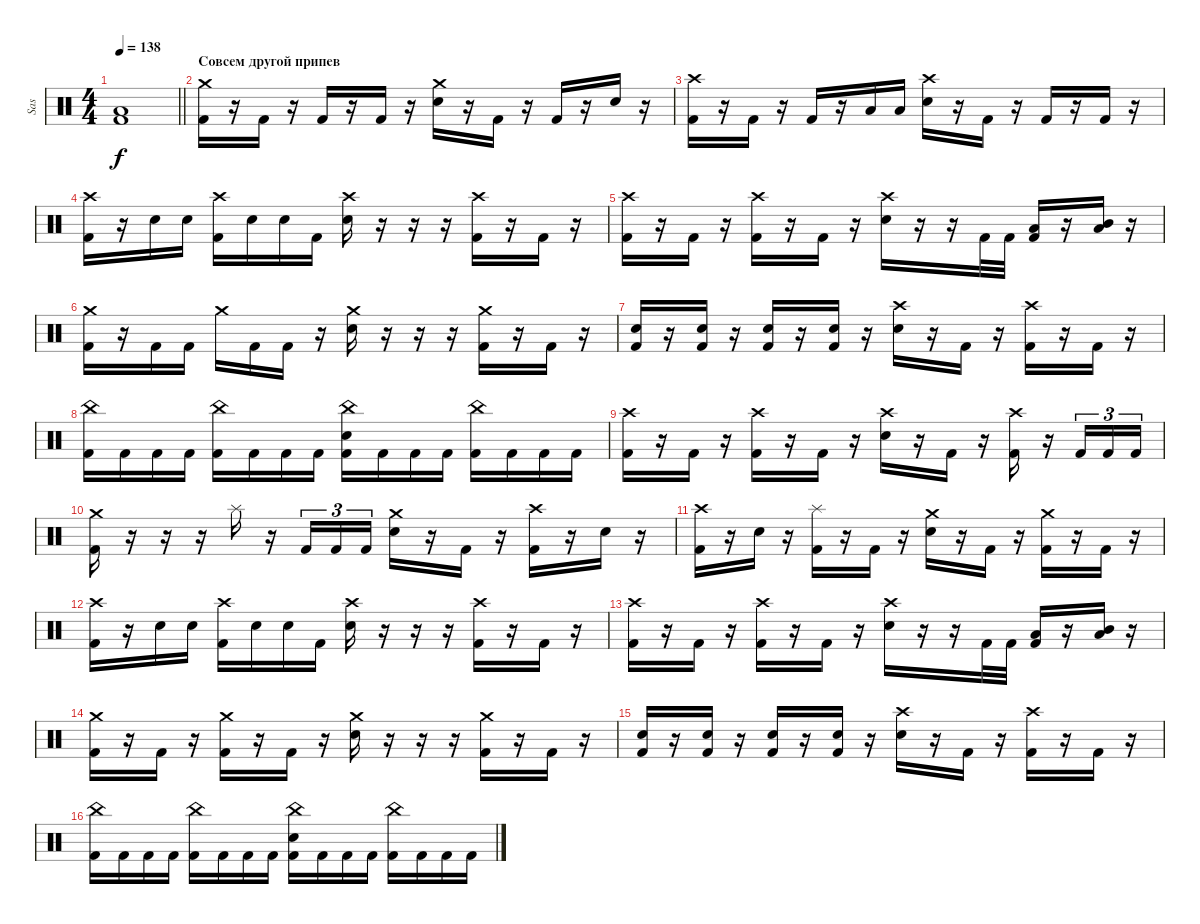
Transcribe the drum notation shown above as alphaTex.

\track ("Sas" "Sas") {instrument percussion}
\staff {score}
\articulation defaults
\ts (4 4)
\tempo 138
\clef neutral
\barLineRight lightlight
\ks c
("Low Tom (hit)" "Kick (hit) 2").1{dy f} |
\section ("" "Совсем другой припев")
("Crash medium (hit)" "Kick (hit) 2").16 r.16 "Kick (hit) 2".16 r.16 "Kick (hit) 2".16 r.16 "Kick (hit) 2".16 r.16 ("Crash medium (hit)" "Snare (hit) 2").16 r.16 "Kick (hit) 2".16 r.16 "Kick (hit) 2".16 r.16 "Snare (hit) 2".16 r.16 |
("Crash high (hit)" "Kick (hit) 2").16 r.16 "Kick (hit) 2".16 r.16 "Kick (hit) 2".16 r.16 "Low Tom (hit)".16 "Low Tom (hit)".16 ("Crash high (hit)" "Snare (hit) 2").16 r.16 "Kick (hit) 2".16 r.16 "Kick (hit) 2".16 r.16 "Kick (hit) 2".16 r.16 |
("Crash high (hit)" "Kick (hit) 2").16 r.16 "Snare (hit) 2".16 "Snare (hit) 2".16 ("Crash high (hit)" "Kick (hit) 2").16 "Snare (hit) 2".16 "Snare (hit) 2".16 "Kick (hit) 2".16 ("Crash high (hit)" "Snare (hit) 2").16 r.16 r.16 r.16 ("Crash high (hit)" "Kick (hit) 2").16 r.16 "Kick (hit) 2".16 r.16 |
("Crash high (hit)" "Kick (hit) 2").16 r.16 "Kick (hit) 2".16 r.16 ("Crash high (hit)" "Kick (hit) 2").16 r.16 "Kick (hit) 2".16 r.16 ("Crash high (hit)" "Snare (hit) 2").16 r.16 r.16 "Kick (hit) 2".32 "Kick (hit) 2".32 ("Low Tom (hit)" "Kick (hit) 2").16 r.16 ("Low Tom (hit)" "Mid Tom (hit)").16 r.16 |
("Crash medium (hit)" "Kick (hit) 2").16 r.16 "Kick (hit) 2".16 "Kick (hit) 2".16 "Crash medium (hit)".16 "Kick (hit) 2".16 "Kick (hit) 2".16 r.16 ("Crash medium (hit)" "Snare (hit) 2").16 r.16 r.16 r.16 ("Crash medium (hit)" "Kick (hit) 2").16 r.16 "Kick (hit) 2".16 r.16 |
("Snare (hit) 2" "Kick (hit) 2").16 r.16 ("Snare (hit) 2" "Kick (hit) 2").16 r.16 ("Snare (hit) 2" "Kick (hit) 2").16 r.16 ("Snare (hit) 2" "Kick (hit) 2").16 r.16 ("Crash high (hit)" "Snare (hit) 2").16 r.16 "Kick (hit) 2".16 r.16 ("Crash high (hit)" "Kick (hit) 2").16 r.16 "Kick (hit) 2".16 r.16 |
("China (hit)" "Kick (hit) 2").16 "Kick (hit) 2".16 "Kick (hit) 2".16 "Kick (hit) 2".16 ("China (hit)" "Kick (hit) 2").16 "Kick (hit) 2".16 "Kick (hit) 2".16 "Kick (hit) 2".16 ("China (hit)" "Snare (hit) 2" "Kick (hit) 2").16 "Kick (hit) 2".16 "Kick (hit) 2".16 "Kick (hit) 2".16 ("China (hit)" "Kick (hit) 2").16 "Kick (hit) 2".16 "Kick (hit) 2".16 "Kick (hit) 2".16 |
("Crash high (hit)" "Kick (hit) 2").16 r.16 "Kick (hit) 2".16 r.16 ("Crash high (hit)" "Kick (hit) 2").16 r.16 "Kick (hit) 2".16 r.16 ("Crash high (hit)" "Snare (hit) 2").16 r.16 "Kick (hit) 2".16 r.16 ("Crash high (hit)" "Kick (hit) 2").16 r.16 "Kick (hit) 2".16{tu (3 2)} "Kick (hit) 2".16{tu (3 2)} "Kick (hit) 2".16{tu (3 2)} |
("Crash medium (hit)" "Kick (hit) 2").16 r.16 r.16 r.16 "Splash (hit)".16 r.16 "Kick (hit) 2".16{tu (3 2)} "Kick (hit) 2".16{tu (3 2)} "Kick (hit) 2".16{tu (3 2)} ("Crash medium (hit)" "Snare (hit) 2").16 r.16 "Kick (hit) 2".16 r.16 ("Crash high (hit)" "Kick (hit) 2").16 r.16 "Snare (hit) 2".16 r.16 |
("Crash high (hit)" "Kick (hit) 2").16 r.16 "Snare (hit) 2".16 r.16 ("Splash (hit)" "Kick (hit) 2").16 r.16 "Kick (hit) 2".16 r.16 ("Crash medium (hit)" "Snare (hit) 2").16 r.16 "Kick (hit) 2".16 r.16 ("Crash medium (hit)" "Kick (hit) 2").16 r.16 "Kick (hit) 2".16 r.16 |
("Crash high (hit)" "Kick (hit) 2").16 r.16 "Snare (hit) 2".16 "Snare (hit) 2".16 ("Crash high (hit)" "Kick (hit) 2").16 "Snare (hit) 2".16 "Snare (hit) 2".16 "Kick (hit) 2".16 ("Crash high (hit)" "Snare (hit) 2").16 r.16 r.16 r.16 ("Crash high (hit)" "Kick (hit) 2").16 r.16 "Kick (hit) 2".16 r.16 |
("Crash high (hit)" "Kick (hit) 2").16 r.16 "Kick (hit) 2".16 r.16 ("Crash high (hit)" "Kick (hit) 2").16 r.16 "Kick (hit) 2".16 r.16 ("Crash high (hit)" "Snare (hit) 2").16 r.16 r.16 "Kick (hit) 2".32 "Kick (hit) 2".32 ("Low Tom (hit)" "Kick (hit) 2").16 r.16 ("Low Tom (hit)" "Mid Tom (hit)").16 r.16 |
("Crash medium (hit)" "Kick (hit) 2").16 r.16 "Kick (hit) 2".16 r.16 ("Crash medium (hit)" "Kick (hit) 2").16 r.16 "Kick (hit) 2".16 r.16 ("Crash medium (hit)" "Snare (hit) 2").16 r.16 r.16 r.16 ("Crash medium (hit)" "Kick (hit) 2").16 r.16 "Kick (hit) 2".16 r.16 |
("Snare (hit) 2" "Kick (hit) 2").16 r.16 ("Snare (hit) 2" "Kick (hit) 2").16 r.16 ("Snare (hit) 2" "Kick (hit) 2").16 r.16 ("Snare (hit) 2" "Kick (hit) 2").16 r.16 ("Crash high (hit)" "Snare (hit) 2").16 r.16 "Kick (hit) 2".16 r.16 ("Crash high (hit)" "Kick (hit) 2").16 r.16 "Kick (hit) 2".16 r.16 |
("China (hit)" "Kick (hit) 2").16 "Kick (hit) 2".16 "Kick (hit) 2".16 "Kick (hit) 2".16 ("China (hit)" "Kick (hit) 2").16 "Kick (hit) 2".16 "Kick (hit) 2".16 "Kick (hit) 2".16 ("China (hit)" "Snare (hit) 2" "Kick (hit) 2").16 "Kick (hit) 2".16 "Kick (hit) 2".16 "Kick (hit) 2".16 ("China (hit)" "Kick (hit) 2").16 "Kick (hit) 2".16 "Kick (hit) 2".16 "Kick (hit) 2".16
